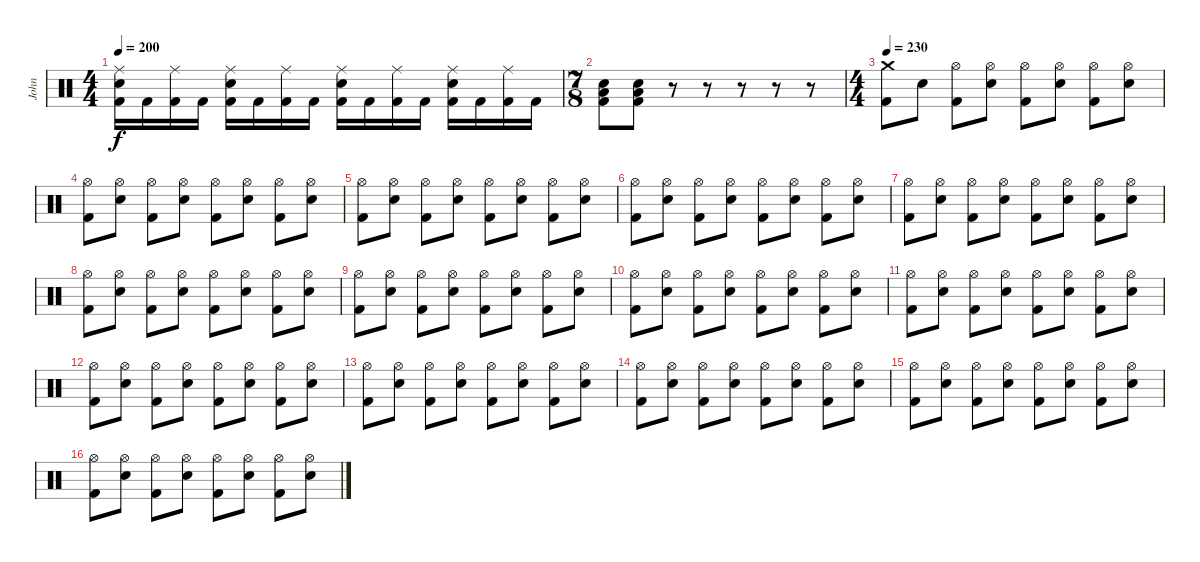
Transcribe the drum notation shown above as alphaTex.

\track ("John" "John") {instrument percussion}
\staff {score}
\articulation defaults
\ts (4 4)
\tempo 200
\clef neutral
\ks c
("Ride (middle)" "Electric Snare (hit)" "Kick (hit) 2").16{dy f} "Kick (hit) 2".16 ("Ride (middle)" "Kick (hit) 2").16 "Kick (hit) 2".16 ("Ride (middle)" "Electric Snare (hit)" "Kick (hit) 2").16 "Kick (hit) 2".16 ("Ride (middle)" "Kick (hit) 2").16 "Kick (hit) 2".16 ("Ride (middle)" "Electric Snare (hit)" "Kick (hit) 2").16 "Kick (hit) 2".16 ("Ride (middle)" "Kick (hit) 2").16 "Kick (hit) 2".16 ("Ride (middle)" "Electric Snare (hit)" "Kick (hit) 2").16 "Kick (hit) 2".16 ("Ride (middle)" "Kick (hit) 2").16 "Kick (hit) 2".16 |
\ts (7 8)
("Low Floor Tom (hit)" "Electric Snare (hit)" "Kick (hit) 2").8 ("Low Floor Tom (hit)" "Electric Snare (hit)" "Kick (hit) 2").8 r.8 r.8 r.8 r.8 r.8 |
\ts (4 4)
\tempo 230
("Crash medium (hit)" "Kick (hit) 2").8 "Electric Snare (hit)".8 ("Hi-Hat (open)" "Kick (hit) 2").8 ("Hi-Hat (open)" "Electric Snare (hit)").8 ("Hi-Hat (open)" "Kick (hit) 2").8 ("Hi-Hat (open)" "Electric Snare (hit)").8 ("Hi-Hat (open)" "Kick (hit) 2").8 ("Hi-Hat (open)" "Electric Snare (hit)").8 |
("Hi-Hat (open)" "Kick (hit) 2").8 ("Hi-Hat (open)" "Electric Snare (hit)").8 ("Hi-Hat (open)" "Kick (hit) 2").8 ("Hi-Hat (open)" "Electric Snare (hit)").8 ("Hi-Hat (open)" "Kick (hit) 2").8 ("Hi-Hat (open)" "Electric Snare (hit)").8 ("Hi-Hat (open)" "Kick (hit) 2").8 ("Hi-Hat (open)" "Electric Snare (hit)").8 |
("Hi-Hat (open)" "Kick (hit) 2").8 ("Hi-Hat (open)" "Electric Snare (hit)").8 ("Hi-Hat (open)" "Kick (hit) 2").8 ("Hi-Hat (open)" "Electric Snare (hit)").8 ("Hi-Hat (open)" "Kick (hit) 2").8 ("Hi-Hat (open)" "Electric Snare (hit)").8 ("Hi-Hat (open)" "Kick (hit) 2").8 ("Hi-Hat (open)" "Electric Snare (hit)").8 |
("Hi-Hat (open)" "Kick (hit) 2").8 ("Hi-Hat (open)" "Electric Snare (hit)").8 ("Hi-Hat (open)" "Kick (hit) 2").8 ("Hi-Hat (open)" "Electric Snare (hit)").8 ("Hi-Hat (open)" "Kick (hit) 2").8 ("Hi-Hat (open)" "Electric Snare (hit)").8 ("Hi-Hat (open)" "Kick (hit) 2").8 ("Hi-Hat (open)" "Electric Snare (hit)").8 |
("Hi-Hat (open)" "Kick (hit) 2").8 ("Hi-Hat (open)" "Electric Snare (hit)").8 ("Hi-Hat (open)" "Kick (hit) 2").8 ("Hi-Hat (open)" "Electric Snare (hit)").8 ("Hi-Hat (open)" "Kick (hit) 2").8 ("Hi-Hat (open)" "Electric Snare (hit)").8 ("Hi-Hat (open)" "Kick (hit) 2").8 ("Hi-Hat (open)" "Electric Snare (hit)").8 |
("Hi-Hat (open)" "Kick (hit) 2").8 ("Hi-Hat (open)" "Electric Snare (hit)").8 ("Hi-Hat (open)" "Kick (hit) 2").8 ("Hi-Hat (open)" "Electric Snare (hit)").8 ("Hi-Hat (open)" "Kick (hit) 2").8 ("Hi-Hat (open)" "Electric Snare (hit)").8 ("Hi-Hat (open)" "Kick (hit) 2").8 ("Hi-Hat (open)" "Electric Snare (hit)").8 |
("Hi-Hat (open)" "Kick (hit) 2").8 ("Hi-Hat (open)" "Electric Snare (hit)").8 ("Hi-Hat (open)" "Kick (hit) 2").8 ("Hi-Hat (open)" "Electric Snare (hit)").8 ("Hi-Hat (open)" "Kick (hit) 2").8 ("Hi-Hat (open)" "Electric Snare (hit)").8 ("Hi-Hat (open)" "Kick (hit) 2").8 ("Hi-Hat (open)" "Electric Snare (hit)").8 |
("Hi-Hat (open)" "Kick (hit) 2").8 ("Hi-Hat (open)" "Electric Snare (hit)").8 ("Hi-Hat (open)" "Kick (hit) 2").8 ("Hi-Hat (open)" "Electric Snare (hit)").8 ("Hi-Hat (open)" "Kick (hit) 2").8 ("Hi-Hat (open)" "Electric Snare (hit)").8 ("Hi-Hat (open)" "Kick (hit) 2").8 ("Hi-Hat (open)" "Electric Snare (hit)").8 |
("Hi-Hat (open)" "Kick (hit) 2").8 ("Hi-Hat (open)" "Electric Snare (hit)").8 ("Hi-Hat (open)" "Kick (hit) 2").8 ("Hi-Hat (open)" "Electric Snare (hit)").8 ("Hi-Hat (open)" "Kick (hit) 2").8 ("Hi-Hat (open)" "Electric Snare (hit)").8 ("Hi-Hat (open)" "Kick (hit) 2").8 ("Hi-Hat (open)" "Electric Snare (hit)").8 |
("Hi-Hat (open)" "Kick (hit) 2").8 ("Hi-Hat (open)" "Electric Snare (hit)").8 ("Hi-Hat (open)" "Kick (hit) 2").8 ("Hi-Hat (open)" "Electric Snare (hit)").8 ("Hi-Hat (open)" "Kick (hit) 2").8 ("Hi-Hat (open)" "Electric Snare (hit)").8 ("Hi-Hat (open)" "Kick (hit) 2").8 ("Hi-Hat (open)" "Electric Snare (hit)").8 |
("Hi-Hat (open)" "Kick (hit) 2").8 ("Hi-Hat (open)" "Electric Snare (hit)").8 ("Hi-Hat (open)" "Kick (hit) 2").8 ("Hi-Hat (open)" "Electric Snare (hit)").8 ("Hi-Hat (open)" "Kick (hit) 2").8 ("Hi-Hat (open)" "Electric Snare (hit)").8 ("Hi-Hat (open)" "Kick (hit) 2").8 ("Hi-Hat (open)" "Electric Snare (hit)").8 |
("Hi-Hat (open)" "Kick (hit) 2").8 ("Hi-Hat (open)" "Electric Snare (hit)").8 ("Hi-Hat (open)" "Kick (hit) 2").8 ("Hi-Hat (open)" "Electric Snare (hit)").8 ("Hi-Hat (open)" "Kick (hit) 2").8 ("Hi-Hat (open)" "Electric Snare (hit)").8 ("Hi-Hat (open)" "Kick (hit) 2").8 ("Hi-Hat (open)" "Electric Snare (hit)").8 |
("Hi-Hat (open)" "Kick (hit) 2").8 ("Hi-Hat (open)" "Electric Snare (hit)").8 ("Hi-Hat (open)" "Kick (hit) 2").8 ("Hi-Hat (open)" "Electric Snare (hit)").8 ("Hi-Hat (open)" "Kick (hit) 2").8 ("Hi-Hat (open)" "Electric Snare (hit)").8 ("Hi-Hat (open)" "Kick (hit) 2").8 ("Hi-Hat (open)" "Electric Snare (hit)").8 |
("Hi-Hat (open)" "Kick (hit) 2").8 ("Hi-Hat (open)" "Electric Snare (hit)").8 ("Hi-Hat (open)" "Kick (hit) 2").8 ("Hi-Hat (open)" "Electric Snare (hit)").8 ("Hi-Hat (open)" "Kick (hit) 2").8 ("Hi-Hat (open)" "Electric Snare (hit)").8 ("Hi-Hat (open)" "Kick (hit) 2").8 ("Hi-Hat (open)" "Electric Snare (hit)").8
